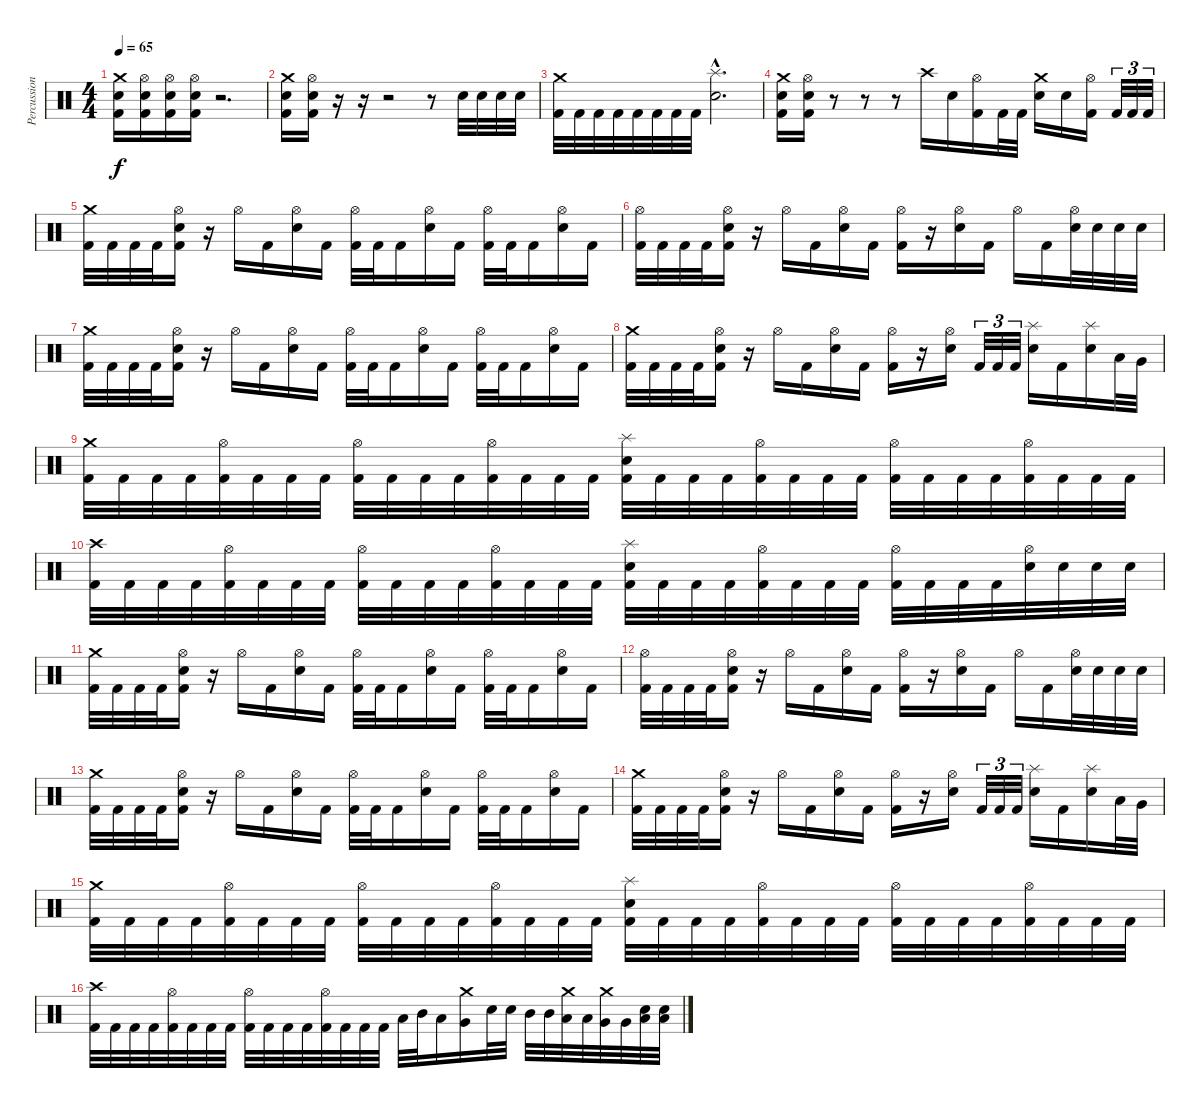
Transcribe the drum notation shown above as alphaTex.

\track ("Percussion" "Percussion") {instrument percussion}
\staff {score}
\articulation defaults
\ts (4 4)
\tempo 65
\clef neutral
\ks c
("Crash medium (hit)" "Electric Snare (hit)" "Kick (hit) 2").16{dy f} ("Hi-Hat (open)" "Electric Snare (hit)" "Kick (hit) 2").16 ("Hi-Hat (open)" "Electric Snare (hit)" "Kick (hit) 2").16 ("Hi-Hat (open)" "Electric Snare (hit)" "Kick (hit) 2").16 r.2{d} |
("Crash medium (hit)" "Electric Snare (hit)" "Kick (hit) 2").16 ("Hi-Hat (open)" "Electric Snare (hit)" "Kick (hit) 2").16 r.16 r.16 r.2 r.8 "Electric Snare (hit)".32 "Electric Snare (hit)".32 "Electric Snare (hit)".32 "Electric Snare (hit)".32 |
("Crash medium (hit)" "Kick (hit) 2").32 "Kick (hit) 2".32 "Kick (hit) 2".32 "Kick (hit) 2".32 "Kick (hit) 2".32 "Kick (hit) 2".32 "Kick (hit) 2".32 "Kick (hit) 2".32 ("Splash (hit)"{hac} "Electric Snare (hit)"{hac}).2{d} |
("Crash medium (hit)" "Electric Snare (hit)" "Kick (hit) 2").16 ("Hi-Hat (open)" "Electric Snare (hit)" "Kick (hit) 2").16 r.8 r.8 r.8 "Crash high (hit)".16 "Electric Snare (hit)".16 ("Hi-Hat (open)" "Kick (hit) 2").16 "Kick (hit) 2".32 "Kick (hit) 2".32 ("Crash medium (hit)" "Electric Snare (hit)").16 "Electric Snare (hit)".16 ("Hi-Hat (open)" "Kick (hit) 2").16 "Kick (hit) 2".32{tu (3 2)} "Kick (hit) 2".32{tu (3 2)} "Kick (hit) 2".32{tu (3 2)} |
("Crash medium (hit)" "Kick (hit) 2").32 "Kick (hit) 2".32 "Kick (hit) 2".32 "Kick (hit) 2".32 ("Hi-Hat (open)" "Electric Snare (hit)" "Kick (hit) 2").16 r.16 "Hi-Hat (open)".16 "Kick (hit) 2".16 ("Hi-Hat (open)" "Electric Snare (hit)").16 "Kick (hit) 2".16 ("Hi-Hat (open)" "Kick (hit) 2").32 "Kick (hit) 2".32 "Kick (hit) 2".16 ("Hi-Hat (open)" "Electric Snare (hit)").16 "Kick (hit) 2".16 ("Hi-Hat (open)" "Kick (hit) 2").32 "Kick (hit) 2".32 "Kick (hit) 2".16 ("Hi-Hat (open)" "Electric Snare (hit)").16 "Kick (hit) 2".16 |
("Hi-Hat (open)" "Kick (hit) 2").32 "Kick (hit) 2".32 "Kick (hit) 2".32 "Kick (hit) 2".32 ("Hi-Hat (open)" "Electric Snare (hit)" "Kick (hit) 2").16 r.16 "Hi-Hat (open)".16 "Kick (hit) 2".16 ("Hi-Hat (open)" "Electric Snare (hit)").16 "Kick (hit) 2".16 ("Hi-Hat (open)" "Kick (hit) 2").16 r.16 ("Hi-Hat (open)" "Electric Snare (hit)").16 "Kick (hit) 2".16 "Hi-Hat (open)".16 "Kick (hit) 2".16 ("Hi-Hat (open)" "Electric Snare (hit)").32 "Electric Snare (hit)".32 "Electric Snare (hit)".32 "Electric Snare (hit)".32 |
("Crash medium (hit)" "Kick (hit) 2").32 "Kick (hit) 2".32 "Kick (hit) 2".32 "Kick (hit) 2".32 ("Hi-Hat (open)" "Electric Snare (hit)" "Kick (hit) 2").16 r.16 "Hi-Hat (open)".16 "Kick (hit) 2".16 ("Hi-Hat (open)" "Electric Snare (hit)").16 "Kick (hit) 2".16 ("Hi-Hat (open)" "Kick (hit) 2").32 "Kick (hit) 2".32 "Kick (hit) 2".16 ("Hi-Hat (open)" "Electric Snare (hit)").16 "Kick (hit) 2".16 ("Hi-Hat (open)" "Kick (hit) 2").32 "Kick (hit) 2".32 "Kick (hit) 2".16 ("Hi-Hat (open)" "Electric Snare (hit)").16 "Kick (hit) 2".16 |
("Crash medium (hit)" "Kick (hit) 2").32 "Kick (hit) 2".32 "Kick (hit) 2".32 "Kick (hit) 2".32 ("Hi-Hat (open)" "Electric Snare (hit)" "Kick (hit) 2").16 r.16 "Hi-Hat (open)".16 "Kick (hit) 2".16 ("Hi-Hat (open)" "Electric Snare (hit)").16 "Kick (hit) 2".16 ("Hi-Hat (open)" "Kick (hit) 2").16 r.16 ("Hi-Hat (open)" "Electric Snare (hit)").16 "Kick (hit) 2".32{tu (3 2)} "Kick (hit) 2".32{tu (3 2)} "Kick (hit) 2".32{tu (3 2)} ("Splash (hit)" "Electric Snare (hit)").16 "Kick (hit) 2".16 ("Splash (hit)" "Electric Snare (hit)").16 "Low Tom (hit)".32 "Very Low Tom (hit)".32 |
("Crash medium (hit)" "Kick (hit) 2").32 "Kick (hit) 2".32 "Kick (hit) 2".32 "Kick (hit) 2".32 ("Hi-Hat (open)" "Kick (hit) 2").32 "Kick (hit) 2".32 "Kick (hit) 2".32 "Kick (hit) 2".32 ("Hi-Hat (open)" "Kick (hit) 2").32 "Kick (hit) 2".32 "Kick (hit) 2".32 "Kick (hit) 2".32 ("Hi-Hat (open)" "Kick (hit) 2").32 "Kick (hit) 2".32 "Kick (hit) 2".32 "Kick (hit) 2".32 ("Splash (hit)" "Electric Snare (hit)" "Kick (hit) 2").32 "Kick (hit) 2".32 "Kick (hit) 2".32 "Kick (hit) 2".32 ("Hi-Hat (open)" "Kick (hit) 2").32 "Kick (hit) 2".32 "Kick (hit) 2".32 "Kick (hit) 2".32 ("Hi-Hat (open)" "Kick (hit) 2").32 "Kick (hit) 2".32 "Kick (hit) 2".32 "Kick (hit) 2".32 ("Hi-Hat (open)" "Kick (hit) 2").32 "Kick (hit) 2".32 "Kick (hit) 2".32 "Kick (hit) 2".32 |
("Crash high (hit)" "Kick (hit) 2").32 "Kick (hit) 2".32 "Kick (hit) 2".32 "Kick (hit) 2".32 ("Hi-Hat (open)" "Kick (hit) 2").32 "Kick (hit) 2".32 "Kick (hit) 2".32 "Kick (hit) 2".32 ("Hi-Hat (open)" "Kick (hit) 2").32 "Kick (hit) 2".32 "Kick (hit) 2".32 "Kick (hit) 2".32 ("Hi-Hat (open)" "Kick (hit) 2").32 "Kick (hit) 2".32 "Kick (hit) 2".32 "Kick (hit) 2".32 ("Splash (hit)" "Electric Snare (hit)" "Kick (hit) 2").32 "Kick (hit) 2".32 "Kick (hit) 2".32 "Kick (hit) 2".32 ("Hi-Hat (open)" "Kick (hit) 2").32 "Kick (hit) 2".32 "Kick (hit) 2".32 "Kick (hit) 2".32 ("Hi-Hat (open)" "Kick (hit) 2").32 "Kick (hit) 2".32 "Kick (hit) 2".32 "Kick (hit) 2".32 ("Hi-Hat (open)" "Electric Snare (hit)").32 "Electric Snare (hit)".32 "Electric Snare (hit)".32 "Electric Snare (hit)".32 |
("Crash medium (hit)" "Kick (hit) 2").32 "Kick (hit) 2".32 "Kick (hit) 2".32 "Kick (hit) 2".32 ("Hi-Hat (open)" "Electric Snare (hit)" "Kick (hit) 2").16 r.16 "Hi-Hat (open)".16 "Kick (hit) 2".16 ("Hi-Hat (open)" "Electric Snare (hit)").16 "Kick (hit) 2".16 ("Hi-Hat (open)" "Kick (hit) 2").32 "Kick (hit) 2".32 "Kick (hit) 2".16 ("Hi-Hat (open)" "Electric Snare (hit)").16 "Kick (hit) 2".16 ("Hi-Hat (open)" "Kick (hit) 2").32 "Kick (hit) 2".32 "Kick (hit) 2".16 ("Hi-Hat (open)" "Electric Snare (hit)").16 "Kick (hit) 2".16 |
("Hi-Hat (open)" "Kick (hit) 2").32 "Kick (hit) 2".32 "Kick (hit) 2".32 "Kick (hit) 2".32 ("Hi-Hat (open)" "Electric Snare (hit)" "Kick (hit) 2").16 r.16 "Hi-Hat (open)".16 "Kick (hit) 2".16 ("Hi-Hat (open)" "Electric Snare (hit)").16 "Kick (hit) 2".16 ("Hi-Hat (open)" "Kick (hit) 2").16 r.16 ("Hi-Hat (open)" "Electric Snare (hit)").16 "Kick (hit) 2".16 "Hi-Hat (open)".16 "Kick (hit) 2".16 ("Hi-Hat (open)" "Electric Snare (hit)").32 "Electric Snare (hit)".32 "Electric Snare (hit)".32 "Electric Snare (hit)".32 |
("Crash medium (hit)" "Kick (hit) 2").32 "Kick (hit) 2".32 "Kick (hit) 2".32 "Kick (hit) 2".32 ("Hi-Hat (open)" "Electric Snare (hit)" "Kick (hit) 2").16 r.16 "Hi-Hat (open)".16 "Kick (hit) 2".16 ("Hi-Hat (open)" "Electric Snare (hit)").16 "Kick (hit) 2".16 ("Hi-Hat (open)" "Kick (hit) 2").32 "Kick (hit) 2".32 "Kick (hit) 2".16 ("Hi-Hat (open)" "Electric Snare (hit)").16 "Kick (hit) 2".16 ("Hi-Hat (open)" "Kick (hit) 2").32 "Kick (hit) 2".32 "Kick (hit) 2".16 ("Hi-Hat (open)" "Electric Snare (hit)").16 "Kick (hit) 2".16 |
("Crash medium (hit)" "Kick (hit) 2").32 "Kick (hit) 2".32 "Kick (hit) 2".32 "Kick (hit) 2".32 ("Hi-Hat (open)" "Electric Snare (hit)" "Kick (hit) 2").16 r.16 "Hi-Hat (open)".16 "Kick (hit) 2".16 ("Hi-Hat (open)" "Electric Snare (hit)").16 "Kick (hit) 2".16 ("Hi-Hat (open)" "Kick (hit) 2").16 r.16 ("Hi-Hat (open)" "Electric Snare (hit)").16 "Kick (hit) 2".32{tu (3 2)} "Kick (hit) 2".32{tu (3 2)} "Kick (hit) 2".32{tu (3 2)} ("Splash (hit)" "Electric Snare (hit)").16 "Kick (hit) 2".16 ("Splash (hit)" "Electric Snare (hit)").16 "Low Tom (hit)".32 "Very Low Tom (hit)".32 |
("Crash medium (hit)" "Kick (hit) 2").32 "Kick (hit) 2".32 "Kick (hit) 2".32 "Kick (hit) 2".32 ("Hi-Hat (open)" "Kick (hit) 2").32 "Kick (hit) 2".32 "Kick (hit) 2".32 "Kick (hit) 2".32 ("Hi-Hat (open)" "Kick (hit) 2").32 "Kick (hit) 2".32 "Kick (hit) 2".32 "Kick (hit) 2".32 ("Hi-Hat (open)" "Kick (hit) 2").32 "Kick (hit) 2".32 "Kick (hit) 2".32 "Kick (hit) 2".32 ("Splash (hit)" "Electric Snare (hit)" "Kick (hit) 2").32 "Kick (hit) 2".32 "Kick (hit) 2".32 "Kick (hit) 2".32 ("Hi-Hat (open)" "Kick (hit) 2").32 "Kick (hit) 2".32 "Kick (hit) 2".32 "Kick (hit) 2".32 ("Hi-Hat (open)" "Kick (hit) 2").32 "Kick (hit) 2".32 "Kick (hit) 2".32 "Kick (hit) 2".32 ("Hi-Hat (open)" "Kick (hit) 2").32 "Kick (hit) 2".32 "Kick (hit) 2".32 "Kick (hit) 2".32 |
("Crash high (hit)" "Kick (hit) 2").32 "Kick (hit) 2".32 "Kick (hit) 2".32 "Kick (hit) 2".32 ("Hi-Hat (open)" "Kick (hit) 2").32 "Kick (hit) 2".32 "Kick (hit) 2".32 "Kick (hit) 2".32 ("Hi-Hat (open)" "Kick (hit) 2").32 "Kick (hit) 2".32 "Kick (hit) 2".32 "Kick (hit) 2".32 ("Hi-Hat (open)" "Kick (hit) 2").32 "Kick (hit) 2".32 "Kick (hit) 2".32 "Kick (hit) 2".32 "Low Tom (hit)".32 "Mid Tom (hit)".32 "Low Tom (hit)".16 ("Crash medium (hit)" "Very Low Tom (hit)").16 "Electric Snare (hit)".32 "Electric Snare (hit)".32 "Mid Tom (hit)".32 "Mid Tom (hit)".32 ("Crash medium (hit)" "Low Tom (hit)").32 "Low Tom (hit)".32 ("Crash medium (hit)" "Very Low Tom (hit)").32 "Very Low Tom (hit)".32 ("Electric Snare (hit)" "Low Floor Tom (hit)").32 ("Electric Snare (hit)" "Low Floor Tom (hit)").32
